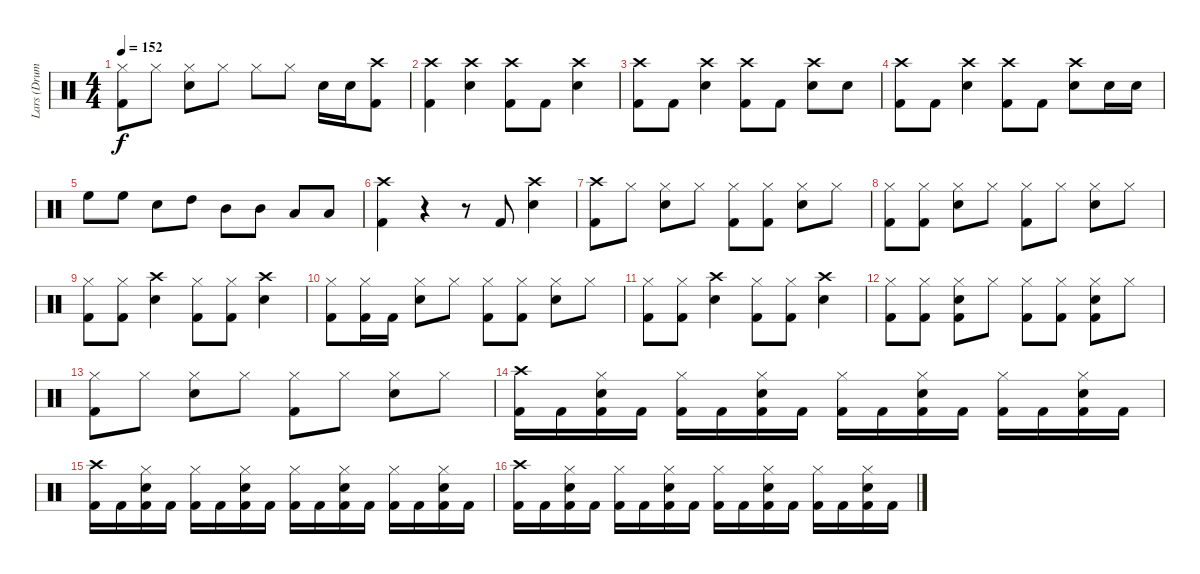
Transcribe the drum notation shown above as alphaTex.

\track ("Lars (Drums)" "Lars (Drum") {instrument percussion}
\staff {score}
\articulation defaults
\ts (4 4)
\tempo 152
\clef neutral
\ks c
("Hi-Hat (closed)" "Kick (hit) 2").8{dy f} "Hi-Hat (closed)".8 ("Hi-Hat (closed)" "Snare (hit) 2").8 "Hi-Hat (closed)".8 "Hi-Hat (closed)".8 "Hi-Hat (closed)".8 "Snare (hit) 2".16 "Snare (hit) 2".16 ("Crash high (hit)" "Kick (hit) 2").8 |
("Crash high (hit)" "Kick (hit) 2").4 ("Crash high (hit)" "Snare (hit) 2").4 ("Crash high (hit)" "Kick (hit) 2").8 "Kick (hit) 2".8 ("Crash high (hit)" "Snare (hit) 2").4 |
("Crash high (hit)" "Kick (hit) 2").8 "Kick (hit) 2".8 ("Crash high (hit)" "Snare (hit) 2").4 ("Crash high (hit)" "Kick (hit) 2").8 "Kick (hit) 2".8 ("Crash high (hit)" "Snare (hit) 2").8 "Snare (hit) 2".8 |
("Crash high (hit)" "Kick (hit) 2").8 "Kick (hit) 2".8 ("Crash high (hit)" "Snare (hit) 2").4 ("Crash high (hit)" "Kick (hit) 2").8 "Kick (hit) 2".8 ("Crash high (hit)" "Snare (hit) 2").8 "Snare (hit) 2".16 "Snare (hit) 2".16 |
"High Floor Tom (hit)".8 "High Floor Tom (hit)".8 "Snare (hit) 2".8 "High Tom (hit)".8 "Mid Tom (hit)".8 "Mid Tom (hit)".8 "Low Tom (hit)".8 "Low Tom (hit)".8 |
("Crash high (hit)" "Kick (hit) 2").4 r.4 r.8 "Kick (hit) 2".8 ("Crash high (hit)" "Snare (hit) 2").4 |
("Crash high (hit)" "Kick (hit) 2").8 "Hi-Hat (closed)".8 ("Hi-Hat (closed)" "Snare (hit) 2").8 "Hi-Hat (closed)".8 ("Hi-Hat (closed)" "Kick (hit) 2").8 ("Hi-Hat (closed)" "Kick (hit) 2").8 ("Hi-Hat (closed)" "Snare (hit) 2").8 "Hi-Hat (closed)".8 |
("Hi-Hat (closed)" "Kick (hit) 2").8 ("Hi-Hat (closed)" "Kick (hit) 2").8 ("Hi-Hat (closed)" "Snare (hit) 2").8 "Hi-Hat (closed)".8 ("Hi-Hat (closed)" "Kick (hit) 2").8 "Hi-Hat (closed)".8 ("Hi-Hat (closed)" "Snare (hit) 2").8 "Hi-Hat (closed)".8 |
("Hi-Hat (closed)" "Kick (hit) 2").8 ("Hi-Hat (closed)" "Kick (hit) 2").8 ("Crash high (hit)" "Snare (hit) 2").4 ("Hi-Hat (closed)" "Kick (hit) 2").8 ("Hi-Hat (closed)" "Kick (hit) 2").8 ("Crash high (hit)" "Snare (hit) 2").4 |
("Hi-Hat (closed)" "Kick (hit) 2").8 ("Hi-Hat (closed)" "Kick (hit) 2").16 "Kick (hit) 2".16 ("Hi-Hat (closed)" "Snare (hit) 2").8 "Hi-Hat (closed)".8 ("Hi-Hat (closed)" "Kick (hit) 2").8 ("Hi-Hat (closed)" "Kick (hit) 2").8 ("Hi-Hat (closed)" "Snare (hit) 2").8 "Hi-Hat (closed)".8 |
("Hi-Hat (closed)" "Kick (hit) 2").8 ("Hi-Hat (closed)" "Kick (hit) 2").8 ("Crash high (hit)" "Snare (hit) 2").4 ("Hi-Hat (closed)" "Kick (hit) 2").8 ("Hi-Hat (closed)" "Kick (hit) 2").8 ("Crash high (hit)" "Snare (hit) 2").4 |
("Hi-Hat (closed)" "Kick (hit) 2").8 ("Hi-Hat (closed)" "Kick (hit) 2").8 ("Hi-Hat (closed)" "Kick (hit) 2" "Snare (hit) 2").8 "Hi-Hat (closed)".8 ("Hi-Hat (closed)" "Kick (hit) 2").8 ("Hi-Hat (closed)" "Kick (hit) 2").8 ("Hi-Hat (closed)" "Kick (hit) 2" "Snare (hit) 2").8 "Hi-Hat (closed)".8 |
("Hi-Hat (closed)" "Kick (hit) 2").8 "Hi-Hat (closed)".8 ("Hi-Hat (closed)" "Snare (hit) 2").8 "Hi-Hat (closed)".8 ("Hi-Hat (closed)" "Kick (hit) 2").8 "Hi-Hat (closed)".8 ("Hi-Hat (closed)" "Snare (hit) 2").8 "Hi-Hat (closed)".8 |
("Crash high (hit)" "Kick (hit) 2").16 "Kick (hit) 2".16 ("Hi-Hat (closed)" "Kick (hit) 2" "Snare (hit) 2").16 "Kick (hit) 2".16 ("Hi-Hat (closed)" "Kick (hit) 2").16 "Kick (hit) 2".16 ("Hi-Hat (closed)" "Kick (hit) 2" "Snare (hit) 2").16 "Kick (hit) 2".16 ("Hi-Hat (closed)" "Kick (hit) 2").16 "Kick (hit) 2".16 ("Hi-Hat (closed)" "Kick (hit) 2" "Snare (hit) 2").16 "Kick (hit) 2".16 ("Hi-Hat (closed)" "Kick (hit) 2").16 "Kick (hit) 2".16 ("Hi-Hat (closed)" "Kick (hit) 2" "Snare (hit) 2").16 "Kick (hit) 2".16 |
("Crash high (hit)" "Kick (hit) 2").16 "Kick (hit) 2".16 ("Hi-Hat (closed)" "Kick (hit) 2" "Snare (hit) 2").16 "Kick (hit) 2".16 ("Hi-Hat (closed)" "Kick (hit) 2").16 "Kick (hit) 2".16 ("Hi-Hat (closed)" "Kick (hit) 2" "Snare (hit) 2").16 "Kick (hit) 2".16 ("Hi-Hat (closed)" "Kick (hit) 2").16 "Kick (hit) 2".16 ("Hi-Hat (closed)" "Kick (hit) 2" "Snare (hit) 2").16 "Kick (hit) 2".16 ("Hi-Hat (closed)" "Kick (hit) 2").16 "Kick (hit) 2".16 ("Hi-Hat (closed)" "Kick (hit) 2" "Snare (hit) 2").16 "Kick (hit) 2".16 |
("Crash high (hit)" "Kick (hit) 2").16 "Kick (hit) 2".16 ("Hi-Hat (closed)" "Kick (hit) 2" "Snare (hit) 2").16 "Kick (hit) 2".16 ("Hi-Hat (closed)" "Kick (hit) 2").16 "Kick (hit) 2".16 ("Hi-Hat (closed)" "Kick (hit) 2" "Snare (hit) 2").16 "Kick (hit) 2".16 ("Hi-Hat (closed)" "Kick (hit) 2").16 "Kick (hit) 2".16 ("Hi-Hat (closed)" "Kick (hit) 2" "Snare (hit) 2").16 "Kick (hit) 2".16 ("Hi-Hat (closed)" "Kick (hit) 2").16 "Kick (hit) 2".16 ("Hi-Hat (closed)" "Kick (hit) 2" "Snare (hit) 2").16 "Kick (hit) 2".16
